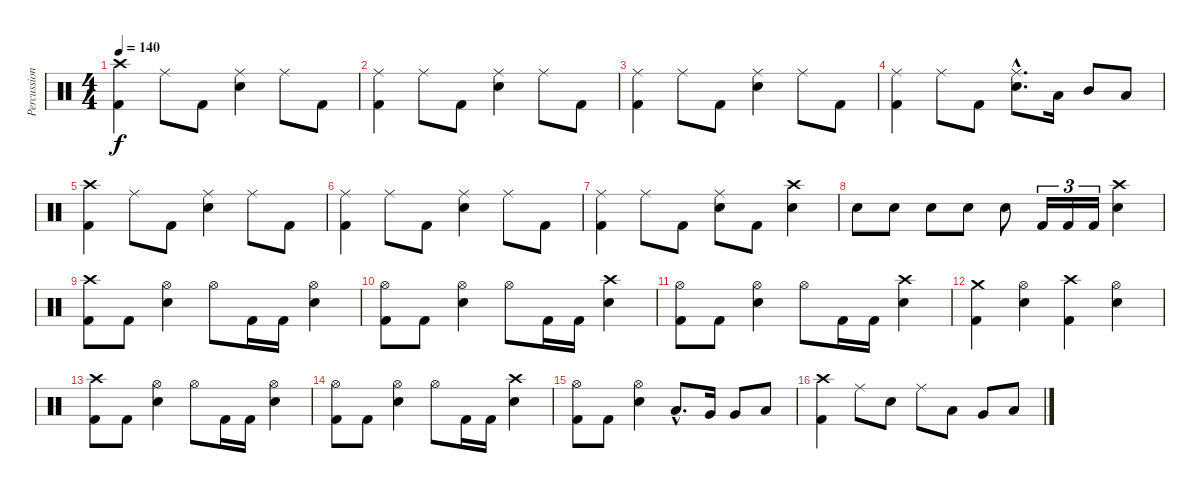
\track ("Percussion" "Percussion") {instrument percussion}
\staff {score}
\articulation defaults
\ts (4 4)
\tempo 140
\clef neutral
\ks c
("Crash high (hit)" "Kick (hit) 2").4{dy f} "Ride (middle)".8 "Kick (hit) 2".8 ("Ride (middle)" "Snare (hit) 2").4 "Ride (middle)".8 "Kick (hit) 2".8 |
("Ride (middle)" "Kick (hit) 2").4 "Ride (middle)".8 "Kick (hit) 2".8 ("Ride (middle)" "Snare (hit) 2").4 "Ride (middle)".8 "Kick (hit) 2".8 |
("Ride (middle)" "Kick (hit) 2").4 "Ride (middle)".8 "Kick (hit) 2".8 ("Ride (middle)" "Snare (hit) 2").4 "Ride (middle)".8 "Kick (hit) 2".8 |
("Ride (middle)" "Kick (hit) 2").4 "Ride (middle)".8 "Kick (hit) 2".8 ("Ride (middle)"{hac} "Snare (hit) 2"{hac}).8{d} "Low Tom (hit)".16 "Mid Tom (hit)".8 "Low Tom (hit)".8 |
("Crash high (hit)" "Kick (hit) 2").4 "Ride (middle)".8 "Kick (hit) 2".8 ("Ride (middle)" "Snare (hit) 2").4 "Ride (middle)".8 "Kick (hit) 2".8 |
("Ride (middle)" "Kick (hit) 2").4 "Ride (middle)".8 "Kick (hit) 2".8 ("Ride (middle)" "Snare (hit) 2").4 "Ride (middle)".8 "Kick (hit) 2".8 |
("Ride (middle)" "Kick (hit) 2").4 "Ride (middle)".8 "Kick (hit) 2".8 ("Ride (middle)" "Snare (hit) 2").8 "Kick (hit) 2".8 ("Crash high (hit)" "Snare (hit) 2").4 |
"Snare (hit) 2".8 "Snare (hit) 2".8 "Snare (hit) 2".8 "Snare (hit) 2".8 "Snare (hit) 2".8 "Kick (hit) 2".16{tu (3 2)} "Kick (hit) 2".16{tu (3 2)} "Kick (hit) 2".16{tu (3 2)} ("Crash high (hit)" "Snare (hit) 2").4 |
("Crash high (hit)" "Kick (hit) 2").8 "Kick (hit) 2".8 ("Hi-Hat (open)" "Snare (hit) 2").4 "Hi-Hat (open)".8 "Kick (hit) 2".16 "Kick (hit) 2".16 ("Hi-Hat (open)" "Snare (hit) 2").4 |
("Hi-Hat (open)" "Kick (hit) 2").8 "Kick (hit) 2".8 ("Hi-Hat (open)" "Snare (hit) 2").4 "Hi-Hat (open)".8 "Kick (hit) 2".16 "Kick (hit) 2".16 ("Crash high (hit)" "Snare (hit) 2").4 |
("Hi-Hat (open)" "Kick (hit) 2").8 "Kick (hit) 2".8 ("Hi-Hat (open)" "Snare (hit) 2").4 "Hi-Hat (open)".8 "Kick (hit) 2".16 "Kick (hit) 2".16 ("Crash high (hit)" "Snare (hit) 2").4 |
("Crash medium (hit)" "Kick (hit) 2").4 ("Hi-Hat (open)" "Snare (hit) 2").4 ("Crash high (hit)" "Kick (hit) 2").4 ("Hi-Hat (open)" "Snare (hit) 2").4 |
("Crash high (hit)" "Kick (hit) 2").8 "Kick (hit) 2".8 ("Hi-Hat (open)" "Snare (hit) 2").4 "Hi-Hat (open)".8 "Kick (hit) 2".16 "Kick (hit) 2".16 ("Hi-Hat (open)" "Snare (hit) 2").4 |
("Hi-Hat (open)" "Kick (hit) 2").8 "Kick (hit) 2".8 ("Hi-Hat (open)" "Snare (hit) 2").4 "Hi-Hat (open)".8 "Kick (hit) 2".16 "Kick (hit) 2".16 ("Crash high (hit)" "Snare (hit) 2").4 |
("Hi-Hat (open)" "Kick (hit) 2").8 "Kick (hit) 2".8 ("Hi-Hat (open)" "Snare (hit) 2").4 "Low Tom (hit)"{hac}.8{d} "Very Low Tom (hit)".16 "Very Low Tom (hit)".8 "Low Floor Tom (hit)".8 |
("Crash high (hit)" "Kick (hit) 2").4 "Ride (middle)".8 "Snare (hit) 2".8 "Ride (middle)".8 "Low Tom (hit)".8 "Very Low Tom (hit)".8 "Low Floor Tom (hit)".8
